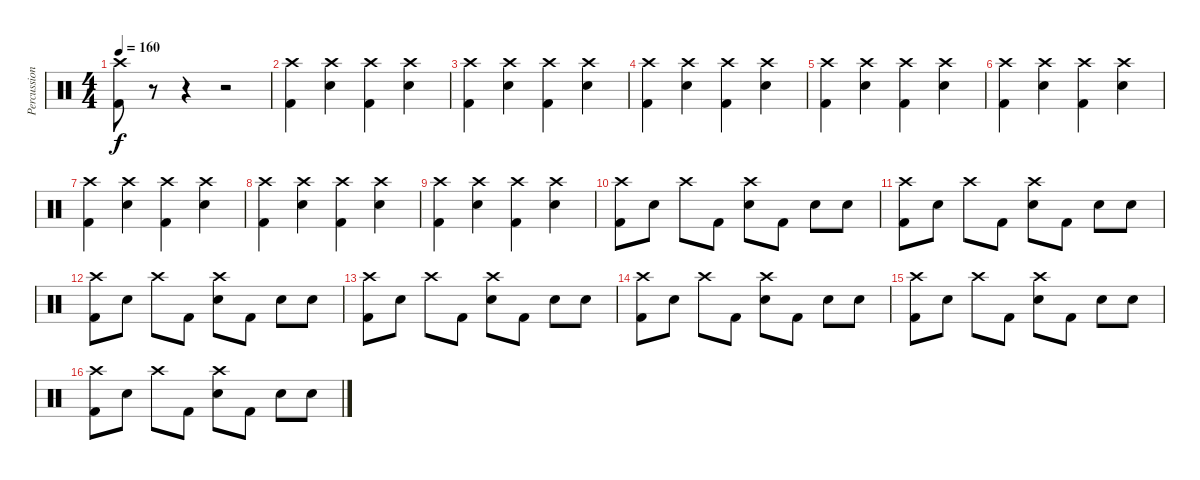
\track ("Percussions" "Percussion") {instrument percussion}
\staff {score}
\articulation defaults
\ts (4 4)
\tempo 160
\clef neutral
\ks c
("Kick (hit) 2" "Crash high (hit)").8{dy f} r.8 r.4 r.2 |
("Kick (hit) 2" "Crash high (hit)").4 ("Snare (hit) 2" "Crash high (hit)").4 ("Kick (hit) 2" "Crash high (hit)").4 ("Snare (hit) 2" "Crash high (hit)").4 |
("Kick (hit) 2" "Crash high (hit)").4 ("Snare (hit) 2" "Crash high (hit)").4 ("Kick (hit) 2" "Crash high (hit)").4 ("Snare (hit) 2" "Crash high (hit)").4 |
("Kick (hit) 2" "Crash high (hit)").4 ("Snare (hit) 2" "Crash high (hit)").4 ("Kick (hit) 2" "Crash high (hit)").4 ("Snare (hit) 2" "Crash high (hit)").4 |
("Kick (hit) 2" "Crash high (hit)").4 ("Snare (hit) 2" "Crash high (hit)").4 ("Kick (hit) 2" "Crash high (hit)").4 ("Snare (hit) 2" "Crash high (hit)").4 |
("Kick (hit) 2" "Crash high (hit)").4 ("Snare (hit) 2" "Crash high (hit)").4 ("Kick (hit) 2" "Crash high (hit)").4 ("Snare (hit) 2" "Crash high (hit)").4 |
("Kick (hit) 2" "Crash high (hit)").4 ("Snare (hit) 2" "Crash high (hit)").4 ("Kick (hit) 2" "Crash high (hit)").4 ("Snare (hit) 2" "Crash high (hit)").4 |
("Kick (hit) 2" "Crash high (hit)").4 ("Snare (hit) 2" "Crash high (hit)").4 ("Kick (hit) 2" "Crash high (hit)").4 ("Snare (hit) 2" "Crash high (hit)").4 |
("Kick (hit) 2" "Crash high (hit)").4 ("Snare (hit) 2" "Crash high (hit)").4 ("Kick (hit) 2" "Crash high (hit)").4 ("Snare (hit) 2" "Crash high (hit)").4 |
("Kick (hit) 2" "Crash high (hit)").8 "Snare (hit) 2".8 "Crash high (hit)".8 "Kick (hit) 2".8 ("Snare (hit) 2" "Crash high (hit)").8 "Kick (hit) 2".8 "Snare (hit) 2".8 "Snare (hit) 2".8 |
("Kick (hit) 2" "Crash high (hit)").8 "Snare (hit) 2".8 "Crash high (hit)".8 "Kick (hit) 2".8 ("Snare (hit) 2" "Crash high (hit)").8 "Kick (hit) 2".8 "Snare (hit) 2".8 "Snare (hit) 2".8 |
("Kick (hit) 2" "Crash high (hit)").8 "Snare (hit) 2".8 "Crash high (hit)".8 "Kick (hit) 2".8 ("Snare (hit) 2" "Crash high (hit)").8 "Kick (hit) 2".8 "Snare (hit) 2".8 "Snare (hit) 2".8 |
("Kick (hit) 2" "Crash high (hit)").8 "Snare (hit) 2".8 "Crash high (hit)".8 "Kick (hit) 2".8 ("Snare (hit) 2" "Crash high (hit)").8 "Kick (hit) 2".8 "Snare (hit) 2".8 "Snare (hit) 2".8 |
("Kick (hit) 2" "Crash high (hit)").8 "Snare (hit) 2".8 "Crash high (hit)".8 "Kick (hit) 2".8 ("Snare (hit) 2" "Crash high (hit)").8 "Kick (hit) 2".8 "Snare (hit) 2".8 "Snare (hit) 2".8 |
("Kick (hit) 2" "Crash high (hit)").8 "Snare (hit) 2".8 "Crash high (hit)".8 "Kick (hit) 2".8 ("Snare (hit) 2" "Crash high (hit)").8 "Kick (hit) 2".8 "Snare (hit) 2".8 "Snare (hit) 2".8 |
("Kick (hit) 2" "Crash high (hit)").8 "Snare (hit) 2".8 "Crash high (hit)".8 "Kick (hit) 2".8 ("Snare (hit) 2" "Crash high (hit)").8 "Kick (hit) 2".8 "Snare (hit) 2".8 "Snare (hit) 2".8
